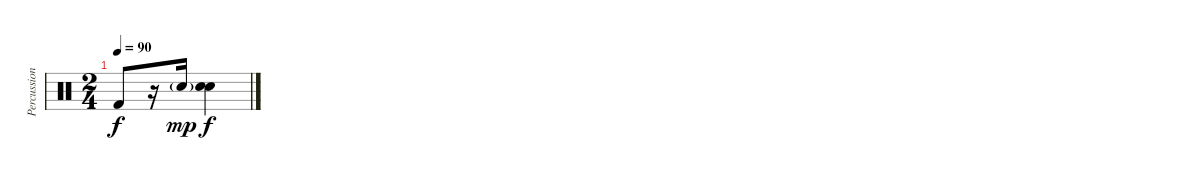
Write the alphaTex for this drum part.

\track ("Percussion" "Percussion") {instrument percussion}
\staff {score}
\articulation defaults
\ts (2 4)
\tempo 90
\clef neutral
\ks c "Kick (hit) 2".8{dy f}
r.16 "Snare (hit) 2"{g}.16{dy mp} ("Snare (hit) 2" "Snare (hit) 2").4{dy f}
